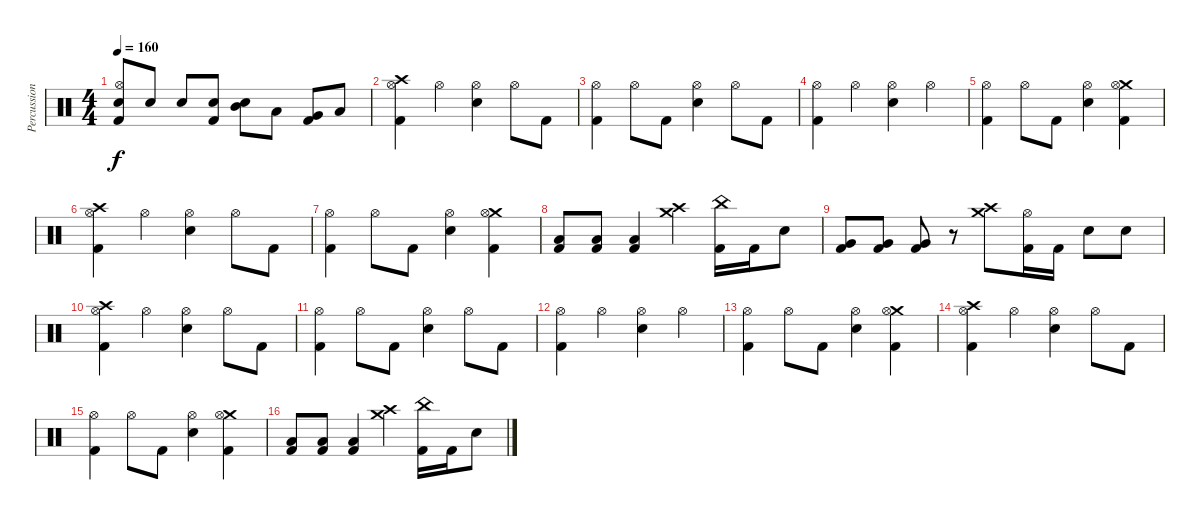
\track ("Percussion" "Percussion") {instrument percussion}
\staff {score}
\articulation defaults
\ts (4 4)
\tempo 160
\clef neutral
\ks c
("Electric Snare (hit)" "Hi-Hat (open)" "Kick (hit) 2").8{dy f} "Electric Snare (hit)".8 "Electric Snare (hit)".8 ("Electric Snare (hit)" "Kick (hit) 2").8 ("Mid Tom (hit)" "Electric Snare (hit)").8 "Low Tom (hit)".8 ("Very Low Tom (hit)" "Kick (hit) 2").8 "Low Floor Tom (hit)".8 |
("Crash high (hit)" "Hi-Hat (open)" "Kick (hit) 2").4 "Hi-Hat (open)".4 ("Hi-Hat (open)" "Electric Snare (hit)").4 "Hi-Hat (open)".8 "Kick (hit) 2".8 |
("Hi-Hat (open)" "Kick (hit) 2").4 "Hi-Hat (open)".8 "Kick (hit) 2".8 ("Hi-Hat (open)" "Electric Snare (hit)").4 "Hi-Hat (open)".8 "Kick (hit) 2".8 |
("Hi-Hat (open)" "Kick (hit) 2").4 "Hi-Hat (open)".4 ("Hi-Hat (open)" "Electric Snare (hit)").4 "Hi-Hat (open)".4 |
("Hi-Hat (open)" "Kick (hit) 2").4 "Hi-Hat (open)".8 "Kick (hit) 2".8 ("Hi-Hat (open)" "Electric Snare (hit)").4 ("Crash medium (hit)" "Hi-Hat (open)" "Kick (hit) 2").4 |
("Crash high (hit)" "Hi-Hat (open)" "Kick (hit) 2").4 "Hi-Hat (open)".4 ("Hi-Hat (open)" "Electric Snare (hit)").4 "Hi-Hat (open)".8 "Kick (hit) 2".8 |
("Hi-Hat (open)" "Kick (hit) 2").4 "Hi-Hat (open)".8 "Kick (hit) 2".8 ("Hi-Hat (open)" "Electric Snare (hit)").4 ("Crash medium (hit)" "Hi-Hat (open)" "Kick (hit) 2").4 |
("Low Tom (hit)" "Kick (hit) 2").8 ("Low Tom (hit)" "Kick (hit) 2").8 ("Low Tom (hit)" "Kick (hit) 2").4 ("Crash medium (hit)" "Crash high (hit)").4 ("China (hit)" "Kick (hit) 2").16 "Kick (hit) 2".16 "Electric Snare (hit)".8 |
("Very Low Tom (hit)" "Kick (hit) 2").8 ("Very Low Tom (hit)" "Kick (hit) 2").8 ("Very Low Tom (hit)" "Kick (hit) 2").8 r.8 ("Crash medium (hit)" "Crash high (hit)").8 ("Hi-Hat (open)" "Kick (hit) 2").16 "Kick (hit) 2".16 "Electric Snare (hit)".8 "Electric Snare (hit)".8 |
("Crash high (hit)" "Hi-Hat (open)" "Kick (hit) 2").4 "Hi-Hat (open)".4 ("Hi-Hat (open)" "Electric Snare (hit)").4 "Hi-Hat (open)".8 "Kick (hit) 2".8 |
("Hi-Hat (open)" "Kick (hit) 2").4 "Hi-Hat (open)".8 "Kick (hit) 2".8 ("Hi-Hat (open)" "Electric Snare (hit)").4 "Hi-Hat (open)".8 "Kick (hit) 2".8 |
("Hi-Hat (open)" "Kick (hit) 2").4 "Hi-Hat (open)".4 ("Hi-Hat (open)" "Electric Snare (hit)").4 "Hi-Hat (open)".4 |
("Hi-Hat (open)" "Kick (hit) 2").4 "Hi-Hat (open)".8 "Kick (hit) 2".8 ("Hi-Hat (open)" "Electric Snare (hit)").4 ("Crash medium (hit)" "Hi-Hat (open)" "Kick (hit) 2").4 |
("Crash high (hit)" "Hi-Hat (open)" "Kick (hit) 2").4 "Hi-Hat (open)".4 ("Hi-Hat (open)" "Electric Snare (hit)").4 "Hi-Hat (open)".8 "Kick (hit) 2".8 |
("Hi-Hat (open)" "Kick (hit) 2").4 "Hi-Hat (open)".8 "Kick (hit) 2".8 ("Hi-Hat (open)" "Electric Snare (hit)").4 ("Crash medium (hit)" "Hi-Hat (open)" "Kick (hit) 2").4 |
("Low Tom (hit)" "Kick (hit) 2").8 ("Low Tom (hit)" "Kick (hit) 2").8 ("Low Tom (hit)" "Kick (hit) 2").4 ("Crash medium (hit)" "Crash high (hit)").4 ("China (hit)" "Kick (hit) 2").16 "Kick (hit) 2".16 "Electric Snare (hit)".8
